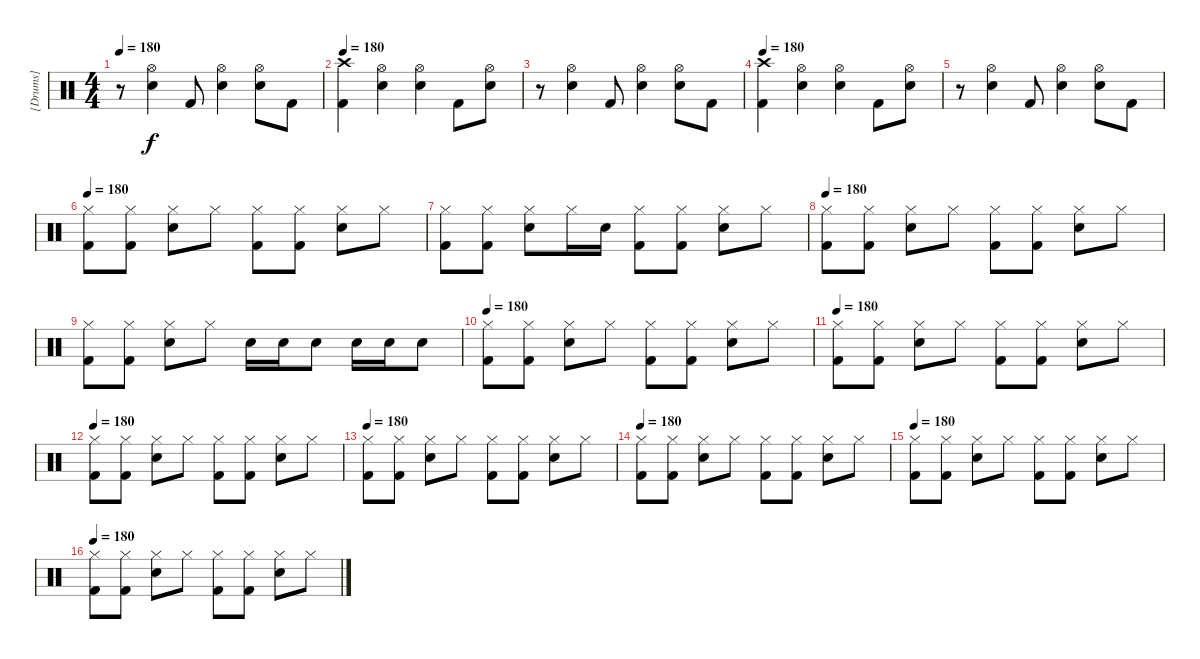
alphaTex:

\track ("[Drums]" "[Drums]") {instrument percussion}
\staff {score}
\articulation defaults
\ts (4 4)
\tempo 180
\clef neutral
\ks c
r.8{dy f} ("Hi-Hat (open)" "Snare (hit) 2").4 "Kick (hit) 2".8 ("Hi-Hat (open)" "Snare (hit) 2").4 ("Hi-Hat (open)" "Snare (hit) 2").8 "Kick (hit) 2".8 |
\tempo 180
("Crash high (hit)" "Kick (hit) 2").4 ("Hi-Hat (open)" "Snare (hit) 2").4 ("Hi-Hat (open)" "Snare (hit) 2").4 "Kick (hit) 2".8 ("Hi-Hat (open)" "Snare (hit) 2").8 |
r.8 ("Hi-Hat (open)" "Snare (hit) 2").4 "Kick (hit) 2".8 ("Hi-Hat (open)" "Snare (hit) 2").4 ("Hi-Hat (open)" "Snare (hit) 2").8 "Kick (hit) 2".8 |
\tempo 180
("Crash high (hit)" "Kick (hit) 2").4 ("Hi-Hat (open)" "Snare (hit) 2").4 ("Hi-Hat (open)" "Snare (hit) 2").4 "Kick (hit) 2".8 ("Hi-Hat (open)" "Snare (hit) 2").8 |
r.8 ("Hi-Hat (open)" "Snare (hit) 2").4 "Kick (hit) 2".8 ("Hi-Hat (open)" "Snare (hit) 2").4 ("Hi-Hat (open)" "Snare (hit) 2").8 "Kick (hit) 2".8 |
\section ("" "")
\tempo 180
("Hi-Hat (closed)" "Kick (hit) 2").8 ("Hi-Hat (closed)" "Kick (hit) 2").8 ("Hi-Hat (closed)" "Snare (hit) 2").8 "Hi-Hat (closed)".8 ("Hi-Hat (closed)" "Kick (hit) 2").8 ("Hi-Hat (closed)" "Kick (hit) 2").8 ("Hi-Hat (closed)" "Snare (hit) 2").8 "Hi-Hat (closed)".8 |
("Hi-Hat (closed)" "Kick (hit) 2").8 ("Hi-Hat (closed)" "Kick (hit) 2").8 ("Hi-Hat (closed)" "Snare (hit) 2").8 "Hi-Hat (closed)".16 "Snare (hit) 2".16 ("Hi-Hat (closed)" "Kick (hit) 2").8 ("Hi-Hat (closed)" "Kick (hit) 2").8 ("Hi-Hat (closed)" "Snare (hit) 2").8 "Hi-Hat (closed)".8 |
\tempo 180
("Hi-Hat (closed)" "Kick (hit) 2").8 ("Hi-Hat (closed)" "Kick (hit) 2").8 ("Hi-Hat (closed)" "Snare (hit) 2").8 "Hi-Hat (closed)".8 ("Hi-Hat (closed)" "Kick (hit) 2").8 ("Hi-Hat (closed)" "Kick (hit) 2").8 ("Hi-Hat (closed)" "Snare (hit) 2").8 "Hi-Hat (closed)".8 |
("Hi-Hat (closed)" "Kick (hit) 2").8 ("Hi-Hat (closed)" "Kick (hit) 2").8 ("Hi-Hat (closed)" "Snare (hit) 2").8 "Hi-Hat (closed)".8 "Snare (hit) 2".16 "Snare (hit) 2".16 "Snare (hit) 2".8 "Snare (hit) 2".16 "Snare (hit) 2".16 "Snare (hit) 2".8 |
\tempo 180
("Hi-Hat (closed)" "Kick (hit) 2").8 ("Hi-Hat (closed)" "Kick (hit) 2").8 ("Hi-Hat (closed)" "Snare (hit) 2").8 "Hi-Hat (closed)".8 ("Hi-Hat (closed)" "Kick (hit) 2").8 ("Hi-Hat (closed)" "Kick (hit) 2").8 ("Hi-Hat (closed)" "Snare (hit) 2").8 "Hi-Hat (closed)".8 |
\tempo 180
("Hi-Hat (closed)" "Kick (hit) 2").8 ("Hi-Hat (closed)" "Kick (hit) 2").8 ("Hi-Hat (closed)" "Snare (hit) 2").8 "Hi-Hat (closed)".8 ("Hi-Hat (closed)" "Kick (hit) 2").8 ("Hi-Hat (closed)" "Kick (hit) 2").8 ("Hi-Hat (closed)" "Snare (hit) 2").8 "Hi-Hat (closed)".8 |
\tempo 180
("Hi-Hat (closed)" "Kick (hit) 2").8 ("Hi-Hat (closed)" "Kick (hit) 2").8 ("Hi-Hat (closed)" "Snare (hit) 2").8 "Hi-Hat (closed)".8 ("Hi-Hat (closed)" "Kick (hit) 2").8 ("Hi-Hat (closed)" "Kick (hit) 2").8 ("Hi-Hat (closed)" "Snare (hit) 2").8 "Hi-Hat (closed)".8 |
\tempo 180
("Hi-Hat (closed)" "Kick (hit) 2").8 ("Hi-Hat (closed)" "Kick (hit) 2").8 ("Hi-Hat (closed)" "Snare (hit) 2").8 "Hi-Hat (closed)".8 ("Hi-Hat (closed)" "Kick (hit) 2").8 ("Hi-Hat (closed)" "Kick (hit) 2").8 ("Hi-Hat (closed)" "Snare (hit) 2").8 "Hi-Hat (closed)".8 |
\tempo 180
("Hi-Hat (closed)" "Kick (hit) 2").8 ("Hi-Hat (closed)" "Kick (hit) 2").8 ("Hi-Hat (closed)" "Snare (hit) 2").8 "Hi-Hat (closed)".8 ("Hi-Hat (closed)" "Kick (hit) 2").8 ("Hi-Hat (closed)" "Kick (hit) 2").8 ("Hi-Hat (closed)" "Snare (hit) 2").8 "Hi-Hat (closed)".8 |
\tempo 180
("Hi-Hat (closed)" "Kick (hit) 2").8 ("Hi-Hat (closed)" "Kick (hit) 2").8 ("Hi-Hat (closed)" "Snare (hit) 2").8 "Hi-Hat (closed)".8 ("Hi-Hat (closed)" "Kick (hit) 2").8 ("Hi-Hat (closed)" "Kick (hit) 2").8 ("Hi-Hat (closed)" "Snare (hit) 2").8 "Hi-Hat (closed)".8 |
\tempo 180
("Hi-Hat (closed)" "Kick (hit) 2").8 ("Hi-Hat (closed)" "Kick (hit) 2").8 ("Hi-Hat (closed)" "Snare (hit) 2").8 "Hi-Hat (closed)".8 ("Hi-Hat (closed)" "Kick (hit) 2").8 ("Hi-Hat (closed)" "Kick (hit) 2").8 ("Hi-Hat (closed)" "Snare (hit) 2").8 "Hi-Hat (closed)".8
